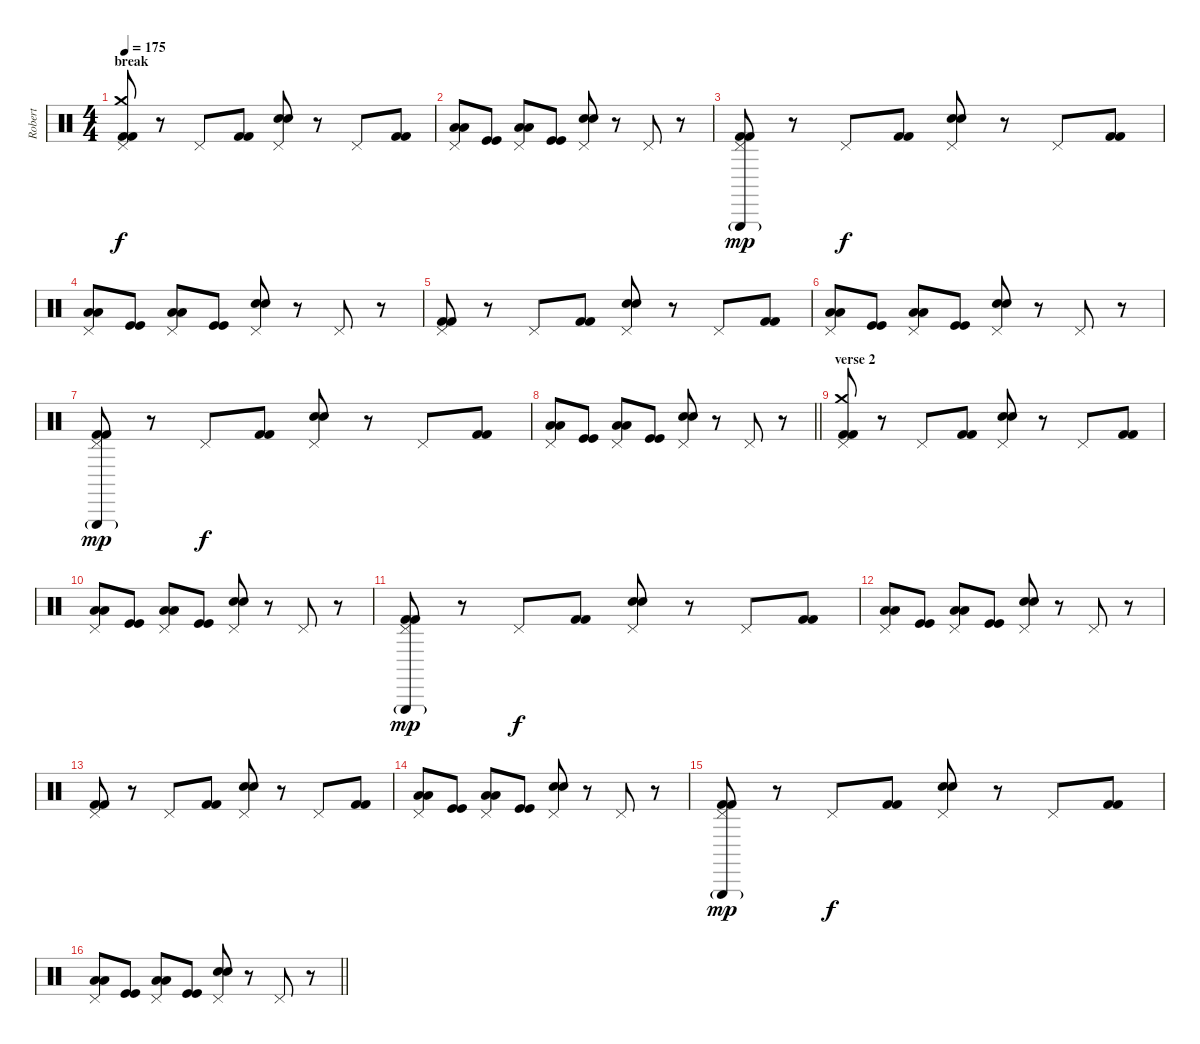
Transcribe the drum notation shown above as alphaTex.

\track ("Robert" "Robert") {instrument percussion}
\staff {score}
\articulation defaults
\ts (4 4)
\section ("" "break")
\tempo 175
\clef neutral
\ks c
("Pedal Hi-Hat (hit)" "Crash medium (hit)" "Kick (hit) 2" "Kick (hit) 2").8{dy f} r.8 "Pedal Hi-Hat (hit)".8 ("Kick (hit) 2" "Kick (hit) 2").8 ("Pedal Hi-Hat (hit)" "Electric Snare (hit)" "Electric Snare (hit)").8 r.8 "Pedal Hi-Hat (hit)".8 ("Kick (hit) 2" "Kick (hit) 2").8 |
("Pedal Hi-Hat (hit)" "Low Floor Tom (hit)" "Low Floor Tom (hit)").8 ("Kick (hit)" "Kick (hit)").8 ("Pedal Hi-Hat (hit)" "Low Floor Tom (hit)" "Low Floor Tom (hit)").8 ("Kick (hit)" "Kick (hit)").8 ("Pedal Hi-Hat (hit)" "Electric Snare (hit)" "Electric Snare (hit)").8 r.8 "Pedal Hi-Hat (hit)".8 r.8 |
("Pedal Hi-Hat (hit)" "Triangle (hit)"{g} "Kick (hit) 2" "Kick (hit) 2").8{dy mp} r.8 "Pedal Hi-Hat (hit)".8{dy f} ("Kick (hit) 2" "Kick (hit) 2").8 ("Pedal Hi-Hat (hit)" "Electric Snare (hit)" "Electric Snare (hit)").8 r.8 "Pedal Hi-Hat (hit)".8 ("Kick (hit) 2" "Kick (hit) 2").8 |
("Pedal Hi-Hat (hit)" "Low Floor Tom (hit)" "Low Floor Tom (hit)").8 ("Kick (hit)" "Kick (hit)").8 ("Pedal Hi-Hat (hit)" "Low Floor Tom (hit)" "Low Floor Tom (hit)").8 ("Kick (hit)" "Kick (hit)").8 ("Pedal Hi-Hat (hit)" "Electric Snare (hit)" "Electric Snare (hit)").8 r.8 "Pedal Hi-Hat (hit)".8 r.8 |
("Pedal Hi-Hat (hit)" "Kick (hit) 2" "Kick (hit) 2").8 r.8 "Pedal Hi-Hat (hit)".8 ("Kick (hit) 2" "Kick (hit) 2").8 ("Pedal Hi-Hat (hit)" "Electric Snare (hit)" "Electric Snare (hit)").8 r.8 "Pedal Hi-Hat (hit)".8 ("Kick (hit) 2" "Kick (hit) 2").8 |
("Pedal Hi-Hat (hit)" "Low Floor Tom (hit)" "Low Floor Tom (hit)").8 ("Kick (hit)" "Kick (hit)").8 ("Pedal Hi-Hat (hit)" "Low Floor Tom (hit)" "Low Floor Tom (hit)").8 ("Kick (hit)" "Kick (hit)").8 ("Pedal Hi-Hat (hit)" "Electric Snare (hit)" "Electric Snare (hit)").8 r.8 "Pedal Hi-Hat (hit)".8 r.8 |
("Pedal Hi-Hat (hit)" "Triangle (hit)"{g} "Kick (hit) 2" "Kick (hit) 2").8{dy mp} r.8 "Pedal Hi-Hat (hit)".8{dy f} ("Kick (hit) 2" "Kick (hit) 2").8 ("Pedal Hi-Hat (hit)" "Electric Snare (hit)" "Electric Snare (hit)").8 r.8 "Pedal Hi-Hat (hit)".8 ("Kick (hit) 2" "Kick (hit) 2").8 |
\barLineRight lightlight
("Pedal Hi-Hat (hit)" "Low Floor Tom (hit)" "Low Floor Tom (hit)").8 ("Kick (hit)" "Kick (hit)").8 ("Pedal Hi-Hat (hit)" "Low Floor Tom (hit)" "Low Floor Tom (hit)").8 ("Kick (hit)" "Kick (hit)").8 ("Pedal Hi-Hat (hit)" "Electric Snare (hit)" "Electric Snare (hit)").8 r.8 "Pedal Hi-Hat (hit)".8 r.8 |
\section ("" "verse 2")
("Pedal Hi-Hat (hit)" "Crash medium (hit)" "Kick (hit) 2" "Kick (hit) 2").8 r.8 "Pedal Hi-Hat (hit)".8 ("Kick (hit) 2" "Kick (hit) 2").8 ("Pedal Hi-Hat (hit)" "Electric Snare (hit)" "Electric Snare (hit)").8 r.8 "Pedal Hi-Hat (hit)".8 ("Kick (hit) 2" "Kick (hit) 2").8 |
("Pedal Hi-Hat (hit)" "Low Floor Tom (hit)" "Low Floor Tom (hit)").8 ("Kick (hit)" "Kick (hit)").8 ("Pedal Hi-Hat (hit)" "Low Floor Tom (hit)" "Low Floor Tom (hit)").8 ("Kick (hit)" "Kick (hit)").8 ("Pedal Hi-Hat (hit)" "Electric Snare (hit)" "Electric Snare (hit)").8 r.8 "Pedal Hi-Hat (hit)".8 r.8 |
("Pedal Hi-Hat (hit)" "Triangle (hit)"{g} "Kick (hit) 2" "Kick (hit) 2").8{dy mp} r.8 "Pedal Hi-Hat (hit)".8{dy f} ("Kick (hit) 2" "Kick (hit) 2").8 ("Pedal Hi-Hat (hit)" "Electric Snare (hit)" "Electric Snare (hit)").8 r.8 "Pedal Hi-Hat (hit)".8 ("Kick (hit) 2" "Kick (hit) 2").8 |
("Pedal Hi-Hat (hit)" "Low Floor Tom (hit)" "Low Floor Tom (hit)").8 ("Kick (hit)" "Kick (hit)").8 ("Pedal Hi-Hat (hit)" "Low Floor Tom (hit)" "Low Floor Tom (hit)").8 ("Kick (hit)" "Kick (hit)").8 ("Pedal Hi-Hat (hit)" "Electric Snare (hit)" "Electric Snare (hit)").8 r.8 "Pedal Hi-Hat (hit)".8 r.8 |
("Pedal Hi-Hat (hit)" "Kick (hit) 2" "Kick (hit) 2").8 r.8 "Pedal Hi-Hat (hit)".8 ("Kick (hit) 2" "Kick (hit) 2").8 ("Pedal Hi-Hat (hit)" "Electric Snare (hit)" "Electric Snare (hit)").8 r.8 "Pedal Hi-Hat (hit)".8 ("Kick (hit) 2" "Kick (hit) 2").8 |
("Pedal Hi-Hat (hit)" "Low Floor Tom (hit)" "Low Floor Tom (hit)").8 ("Kick (hit)" "Kick (hit)").8 ("Pedal Hi-Hat (hit)" "Low Floor Tom (hit)" "Low Floor Tom (hit)").8 ("Kick (hit)" "Kick (hit)").8 ("Pedal Hi-Hat (hit)" "Electric Snare (hit)" "Electric Snare (hit)").8 r.8 "Pedal Hi-Hat (hit)".8 r.8 |
("Pedal Hi-Hat (hit)" "Triangle (hit)"{g} "Kick (hit) 2" "Kick (hit) 2").8{dy mp} r.8 "Pedal Hi-Hat (hit)".8{dy f} ("Kick (hit) 2" "Kick (hit) 2").8 ("Pedal Hi-Hat (hit)" "Electric Snare (hit)" "Electric Snare (hit)").8 r.8 "Pedal Hi-Hat (hit)".8 ("Kick (hit) 2" "Kick (hit) 2").8 |
\barLineRight lightlight
("Pedal Hi-Hat (hit)" "Low Floor Tom (hit)" "Low Floor Tom (hit)").8 ("Kick (hit)" "Kick (hit)").8 ("Pedal Hi-Hat (hit)" "Low Floor Tom (hit)" "Low Floor Tom (hit)").8 ("Kick (hit)" "Kick (hit)").8 ("Pedal Hi-Hat (hit)" "Electric Snare (hit)" "Electric Snare (hit)").8 r.8 "Pedal Hi-Hat (hit)".8 r.8
